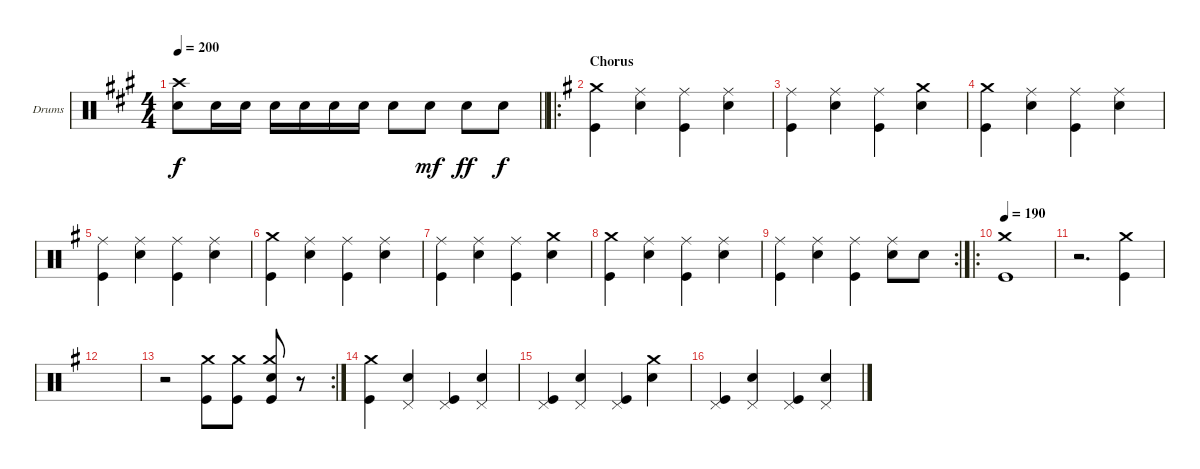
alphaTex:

\bracketExtendMode groupsimilarinstruments
\firstSystemTrackNameOrientation horizontal
\otherSystemsTrackNameOrientation horizontal
\track ("Drums" "Drums") {instrument percussion}
\staff {score}
\articulation defaults
\ts (4 4)
\tempo 200
\clef neutral
\barLineRight lightlight
\ks a
("Snare (hit) 2" "Crash high (hit)").8{dy f} "Snare (hit) 2".16 "Snare (hit) 2".16 "Snare (hit) 2".16 "Snare (hit) 2".16 "Snare (hit) 2".16 "Snare (hit) 2".16 "Snare (hit) 2".8 "Snare (hit) 2".8{dy mf} "Snare (hit) 2".8{dy ff} "Snare (hit) 2".8{dy f} |
\ro
\section ("" "Chorus")
\ks g
("Crash medium (hit)" "Kick (hit)").4 ("Ride (middle)" "Snare (hit) 2").4 ("Ride (middle)" "Kick (hit)").4 ("Ride (middle)" "Snare (hit) 2").4 |
("Ride (middle)" "Kick (hit)").4 ("Ride (middle)" "Snare (hit) 2").4 ("Ride (middle)" "Kick (hit)").4 ("Crash medium (hit)" "Snare (hit) 2").4 |
("Crash medium (hit)" "Kick (hit)").4 ("Ride (middle)" "Snare (hit) 2").4 ("Ride (middle)" "Kick (hit)").4 ("Ride (middle)" "Snare (hit) 2").4 |
("Ride (middle)" "Kick (hit)").4 ("Ride (middle)" "Snare (hit) 2").4 ("Ride (middle)" "Kick (hit)").4 ("Ride (middle)" "Snare (hit) 2").4 |
("Crash medium (hit)" "Kick (hit)").4 ("Ride (middle)" "Snare (hit) 2").4 ("Ride (middle)" "Kick (hit)").4 ("Ride (middle)" "Snare (hit) 2").4 |
("Ride (middle)" "Kick (hit)").4 ("Ride (middle)" "Snare (hit) 2").4 ("Ride (middle)" "Kick (hit)").4 ("Crash medium (hit)" "Snare (hit) 2").4 |
("Crash medium (hit)" "Kick (hit)").4 ("Ride (middle)" "Snare (hit) 2").4 ("Ride (middle)" "Kick (hit)").4 ("Ride (middle)" "Snare (hit) 2").4 |
\rc 2
("Ride (middle)" "Kick (hit)").4 ("Ride (middle)" "Snare (hit) 2").4 ("Ride (middle)" "Kick (hit)").4 ("Ride (middle)" "Snare (hit) 2").8 "Snare (hit) 2".8 |
\ro
\tempo 190
("Crash medium (hit)" "Kick (hit)").1 |
r.2{d} ("Crash medium (hit)" "Kick (hit)").4 |
|
\rc 2
r.2 ("Crash medium (hit)" "Kick (hit)").8 ("Crash medium (hit)" "Kick (hit)").8 ("Crash medium (hit)" "Snare (hit) 2" "Kick (hit)").8 r.8 |
("Crash medium (hit)" "Kick (hit)").4 ("Pedal Hi-Hat (hit)" "Snare (hit) 2").4 ("Pedal Hi-Hat (hit)" "Kick (hit)").4 ("Pedal Hi-Hat (hit)" "Snare (hit) 2").4 |
("Pedal Hi-Hat (hit)" "Kick (hit)").4 ("Pedal Hi-Hat (hit)" "Snare (hit) 2").4 ("Pedal Hi-Hat (hit)" "Kick (hit)").4 ("Crash medium (hit)" "Snare (hit) 2").4 |
("Pedal Hi-Hat (hit)" "Kick (hit)").4 ("Pedal Hi-Hat (hit)" "Snare (hit) 2").4 ("Pedal Hi-Hat (hit)" "Kick (hit)").4 ("Pedal Hi-Hat (hit)" "Snare (hit) 2").4
